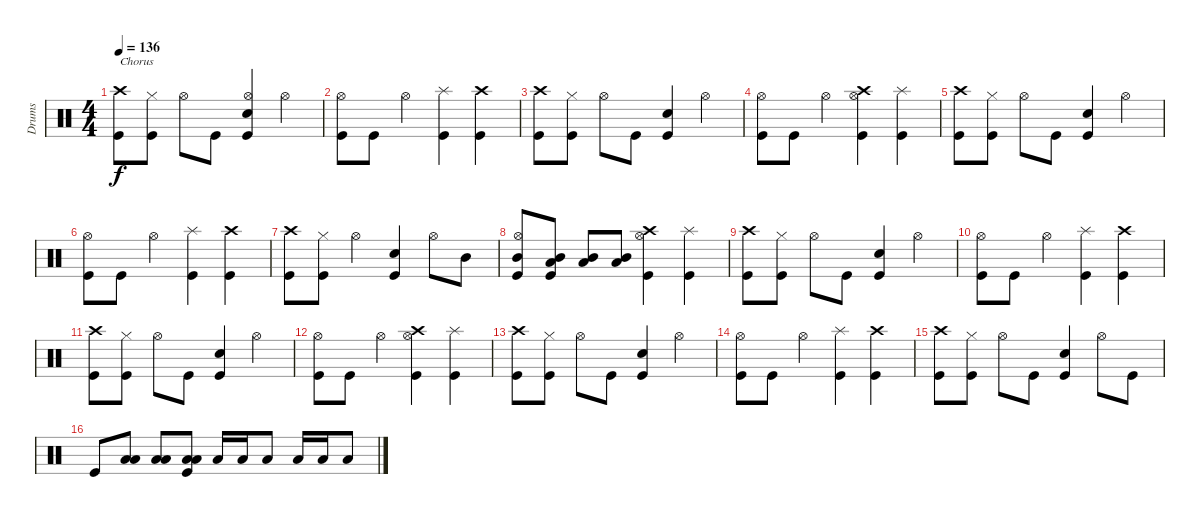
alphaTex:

\track ("Drums" "Drums") {instrument percussion}
\staff {score}
\articulation defaults
\ts (4 4)
\tempo 136
\clef neutral
\ks c
("Crash high (hit)" "Kick (hit)").8{txt "Chorus" dy f} ("Hi-Hat (closed)" "Kick (hit)").8 "Hi-Hat (open)".8 "Kick (hit)".8 ("Hi-Hat (open)" "Snare (hit) 2" "Kick (hit)").4 "Hi-Hat (open)".4 |
("Hi-Hat (open)" "Kick (hit)").8 "Kick (hit)".8 "Hi-Hat (open)".4 ("Splash (hit)" "Kick (hit)").4 ("Crash high (hit)" "Kick (hit)").4 |
("Crash high (hit)" "Kick (hit)").8 ("Hi-Hat (closed)" "Kick (hit)").8 "Hi-Hat (open)".8 "Kick (hit)".8 ("Snare (hit) 2" "Kick (hit)").4 "Hi-Hat (open)".4 |
("Hi-Hat (open)" "Kick (hit)").8 "Kick (hit)".8 "Hi-Hat (open)".4 ("Crash high (hit)" "Hi-Hat (open)" "Kick (hit)").4 ("Splash (hit)" "Kick (hit)").4 |
("Crash high (hit)" "Kick (hit)").8 ("Hi-Hat (closed)" "Kick (hit)").8 "Hi-Hat (open)".8 "Kick (hit)".8 ("Snare (hit) 2" "Kick (hit)").4 "Hi-Hat (open)".4 |
("Hi-Hat (open)" "Kick (hit)").8 "Kick (hit)".8 "Hi-Hat (open)".4 ("Splash (hit)" "Kick (hit)").4 ("Crash high (hit)" "Kick (hit)").4 |
("Crash high (hit)" "Kick (hit)").8 ("Hi-Hat (closed)" "Kick (hit)").8 "Hi-Hat (open)".4 ("Snare (hit) 2" "Kick (hit)").4 "Hi-Hat (open)".8 "Mid Tom (hit)".8 |
("Mid Tom (hit)" "Hi-Hat (open)" "Kick (hit)").8 ("Mid Tom (hit)" "Low Tom (hit)" "Kick (hit)").8 ("Mid Tom (hit)" "Low Tom (hit)").8 ("Mid Tom (hit)" "Low Tom (hit)").8 ("Crash high (hit)" "Hi-Hat (open)" "Kick (hit)").4 ("Splash (hit)" "Kick (hit)").4 |
("Crash high (hit)" "Kick (hit)").8 ("Hi-Hat (closed)" "Kick (hit)").8 "Hi-Hat (open)".8 "Kick (hit)".8 ("Snare (hit) 2" "Kick (hit)").4 "Hi-Hat (open)".4 |
("Hi-Hat (open)" "Kick (hit)").8 "Kick (hit)".8 "Hi-Hat (open)".4 ("Splash (hit)" "Kick (hit)").4 ("Crash high (hit)" "Kick (hit)").4 |
("Crash high (hit)" "Kick (hit)").8 ("Hi-Hat (closed)" "Kick (hit)").8 "Hi-Hat (open)".8 "Kick (hit)".8 ("Snare (hit) 2" "Kick (hit)").4 "Hi-Hat (open)".4 |
("Hi-Hat (open)" "Kick (hit)").8 "Kick (hit)".8 "Hi-Hat (open)".4 ("Crash high (hit)" "Hi-Hat (open)" "Kick (hit)").4 ("Splash (hit)" "Kick (hit)").4 |
("Crash high (hit)" "Kick (hit)").8 ("Hi-Hat (closed)" "Kick (hit)").8 "Hi-Hat (open)".8 "Kick (hit)".8 ("Snare (hit) 2" "Kick (hit)").4 "Hi-Hat (open)".4 |
("Hi-Hat (open)" "Kick (hit)").8 "Kick (hit)".8 "Hi-Hat (open)".4 ("Splash (hit)" "Kick (hit)").4 ("Crash high (hit)" "Kick (hit)").4 |
("Crash high (hit)" "Kick (hit)").8 ("Hi-Hat (closed)" "Kick (hit)").8 "Hi-Hat (open)".8 "Kick (hit)".8 ("Snare (hit) 2" "Kick (hit)").4 "Hi-Hat (open)".8 "Kick (hit)".8 |
"Kick (hit)".8 ("Low Floor Tom (hit)" "Low Floor Tom (hit)").8 ("Low Floor Tom (hit)" "Low Floor Tom (hit)").8 ("Low Floor Tom (hit)" "Low Floor Tom (hit)" "Kick (hit)").8 "Low Tom (hit)".16 "Low Tom (hit)".16 "Low Tom (hit)".8 "Low Floor Tom (hit)".16 "Low Floor Tom (hit)".16 "Low Floor Tom (hit)".8
